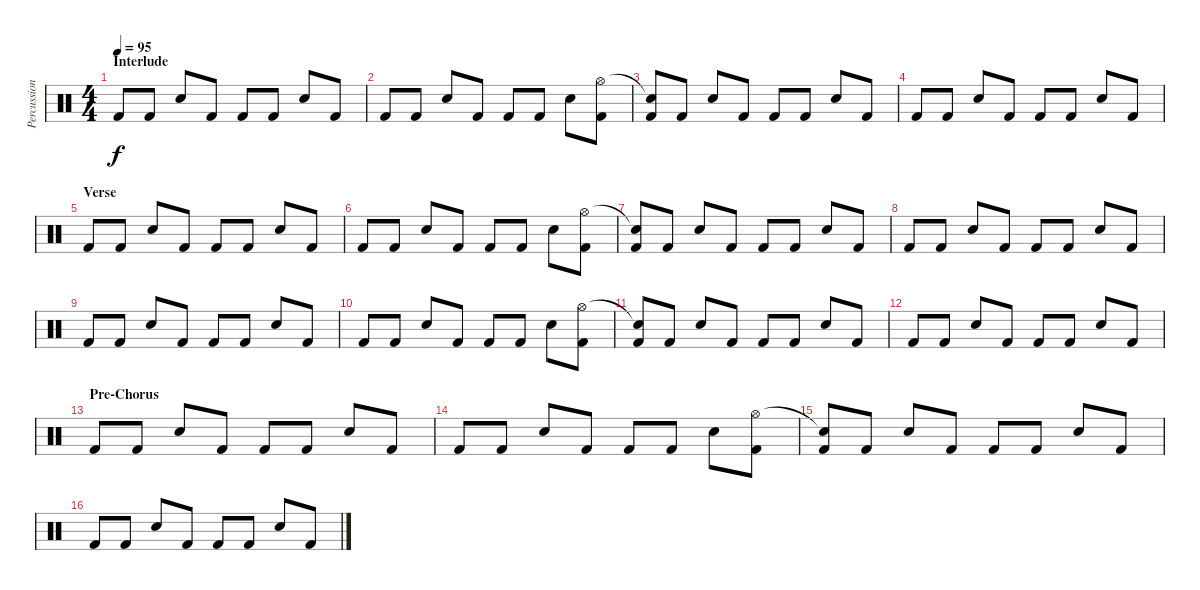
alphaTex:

\track ("Percussion" "Percussion") {instrument percussion}
\staff {score}
\articulation defaults
\ts (4 4)
\section ("" "Interlude")
\tempo 95
\clef neutral
\ks c "Kick (hit) 2".8{dy f} "Kick (hit) 2".8 "Electric Snare (hit)".8 "Kick (hit) 2".8 "Kick (hit) 2".8 "Kick (hit) 2".8 "Electric Snare (hit)".8 "Kick (hit) 2".8
|
"Kick (hit) 2".8 "Kick (hit) 2".8 "Electric Snare (hit)".8 "Kick (hit) 2".8 "Kick (hit) 2".8 "Kick (hit) 2".8 "Electric Snare (hit)".8 ("Hi-Hat (open)" "Kick (hit) 2").8 |
("Snare (hit)"{t} "Kick (hit) 2").8 "Kick (hit) 2".8 "Electric Snare (hit)".8 "Kick (hit) 2".8 "Kick (hit) 2".8 "Kick (hit) 2".8 "Electric Snare (hit)".8 "Kick (hit) 2".8 |
"Kick (hit) 2".8 "Kick (hit) 2".8 "Electric Snare (hit)".8 "Kick (hit) 2".8 "Kick (hit) 2".8 "Kick (hit) 2".8 "Electric Snare (hit)".8 "Kick (hit) 2".8 |
\section ("" "Verse")
"Kick (hit) 2".8 "Kick (hit) 2".8 "Electric Snare (hit)".8 "Kick (hit) 2".8 "Kick (hit) 2".8 "Kick (hit) 2".8 "Electric Snare (hit)".8 "Kick (hit) 2".8 |
"Kick (hit) 2".8 "Kick (hit) 2".8 "Electric Snare (hit)".8 "Kick (hit) 2".8 "Kick (hit) 2".8 "Kick (hit) 2".8 "Electric Snare (hit)".8 ("Hi-Hat (open)" "Kick (hit) 2").8 |
("Snare (hit)"{t} "Kick (hit) 2").8 "Kick (hit) 2".8 "Electric Snare (hit)".8 "Kick (hit) 2".8 "Kick (hit) 2".8 "Kick (hit) 2".8 "Electric Snare (hit)".8 "Kick (hit) 2".8 |
"Kick (hit) 2".8 "Kick (hit) 2".8 "Electric Snare (hit)".8 "Kick (hit) 2".8 "Kick (hit) 2".8 "Kick (hit) 2".8 "Electric Snare (hit)".8 "Kick (hit) 2".8 |
"Kick (hit) 2".8 "Kick (hit) 2".8 "Electric Snare (hit)".8 "Kick (hit) 2".8 "Kick (hit) 2".8 "Kick (hit) 2".8 "Electric Snare (hit)".8 "Kick (hit) 2".8 |
"Kick (hit) 2".8 "Kick (hit) 2".8 "Electric Snare (hit)".8 "Kick (hit) 2".8 "Kick (hit) 2".8 "Kick (hit) 2".8 "Electric Snare (hit)".8 ("Hi-Hat (open)" "Kick (hit) 2").8 |
("Snare (hit)"{t} "Kick (hit) 2").8 "Kick (hit) 2".8 "Electric Snare (hit)".8 "Kick (hit) 2".8 "Kick (hit) 2".8 "Kick (hit) 2".8 "Electric Snare (hit)".8 "Kick (hit) 2".8 |
"Kick (hit) 2".8 "Kick (hit) 2".8 "Electric Snare (hit)".8 "Kick (hit) 2".8 "Kick (hit) 2".8 "Kick (hit) 2".8 "Electric Snare (hit)".8 "Kick (hit) 2".8 |
\section ("" "Pre-Chorus")
"Kick (hit) 2".8 "Kick (hit) 2".8 "Electric Snare (hit)".8 "Kick (hit) 2".8 "Kick (hit) 2".8 "Kick (hit) 2".8 "Electric Snare (hit)".8 "Kick (hit) 2".8 |
"Kick (hit) 2".8 "Kick (hit) 2".8 "Electric Snare (hit)".8 "Kick (hit) 2".8 "Kick (hit) 2".8 "Kick (hit) 2".8 "Electric Snare (hit)".8 ("Hi-Hat (open)" "Kick (hit) 2").8 |
("Snare (hit)"{t} "Kick (hit) 2").8 "Kick (hit) 2".8 "Electric Snare (hit)".8 "Kick (hit) 2".8 "Kick (hit) 2".8 "Kick (hit) 2".8 "Electric Snare (hit)".8 "Kick (hit) 2".8 |
"Kick (hit) 2".8 "Kick (hit) 2".8 "Electric Snare (hit)".8 "Kick (hit) 2".8 "Kick (hit) 2".8 "Kick (hit) 2".8 "Electric Snare (hit)".8 "Kick (hit) 2".8
